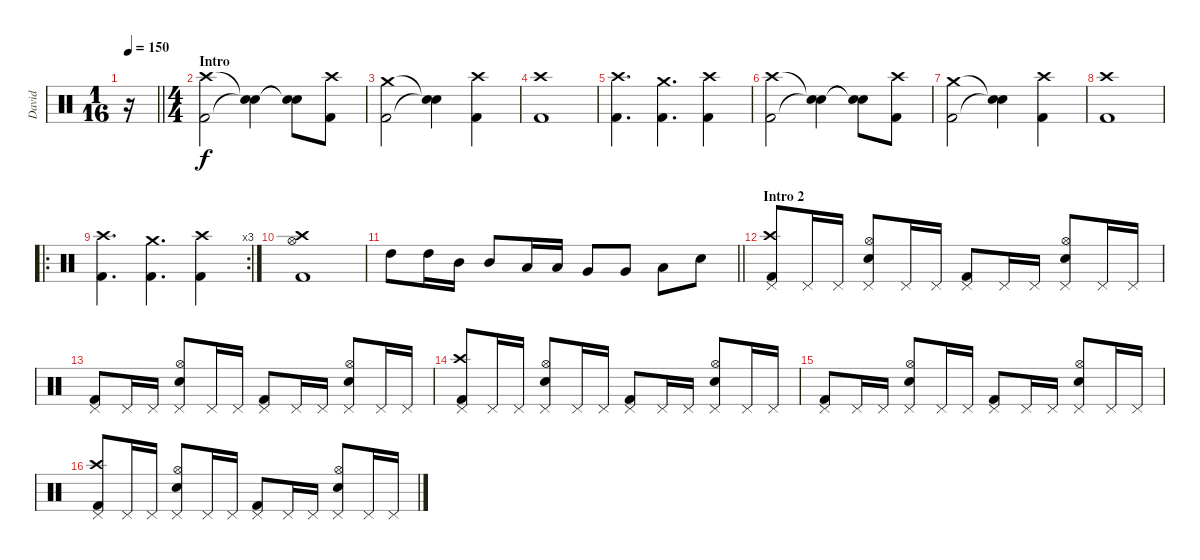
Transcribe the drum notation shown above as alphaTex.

\track ("David" "David") {instrument percussion}
\staff {score}
\articulation defaults
\ts (1 16)
\tempo 150
\clef neutral
\barLineRight lightlight
\ks c
r.16{dy f} |
\ts (4 4)
\section ("" "Intro")
("Kick (hit) 2" "Crash high (hit)").2 ("Snare (hit)"{t} "Snare (hit)"{t}).4 ("Snare (hit)"{t} "Snare (hit)"{t}).8 ("Kick (hit) 2" "Crash high (hit)").8 |
("Kick (hit) 2" "Crash medium (hit)").2 ("Snare (hit)"{t} "Snare (hit)"{t}).4 ("Kick (hit) 2" "Crash high (hit)").4 |
("Kick (hit) 2" "Crash high (hit)").1 |
("Kick (hit) 2" "Crash high (hit)").4{d} ("Kick (hit) 2" "Crash medium (hit)").4{d} ("Kick (hit) 2" "Crash high (hit)").4 |
("Kick (hit) 2" "Crash high (hit)").2 ("Snare (hit)"{t} "Snare (hit)"{t}).4 ("Snare (hit)"{t} "Snare (hit)"{t}).8 ("Kick (hit) 2" "Crash high (hit)").8 |
("Kick (hit) 2" "Crash medium (hit)").2 ("Snare (hit)"{t} "Snare (hit)"{t}).4 ("Kick (hit) 2" "Crash high (hit)").4 |
("Kick (hit) 2" "Crash high (hit)").1 |
\ro
\rc 3
("Kick (hit) 2" "Crash high (hit)").4{d} ("Kick (hit) 2" "Crash medium (hit)").4{d} ("Kick (hit) 2" "Crash high (hit)").4 |
("Kick (hit) 2" "Hi-Hat (open)" "Crash high (hit)").1 |
\barLineRight lightlight "High Tom (hit)".8 "High Tom (hit)".16 "Mid Tom (hit)".16 "Mid Tom (hit)".8 "Low Tom (hit)".16 "Low Tom (hit)".16 "Very Low Tom (hit)".8 "Very Low Tom (hit)".8 "Low Floor Tom (hit)".8 "Snare (hit) 2".8
|
\section ("" "Intro 2")
("Kick (hit) 2" "Pedal Hi-Hat (hit)" "Crash high (hit)").8 "Pedal Hi-Hat (hit)".16 "Pedal Hi-Hat (hit)".16 ("Snare (hit) 2" "Pedal Hi-Hat (hit)" "Hi-Hat (open)").8 "Pedal Hi-Hat (hit)".16 "Pedal Hi-Hat (hit)".16 ("Kick (hit) 2" "Pedal Hi-Hat (hit)").8 "Pedal Hi-Hat (hit)".16 "Pedal Hi-Hat (hit)".16 ("Snare (hit) 2" "Pedal Hi-Hat (hit)" "Hi-Hat (open)").8 "Pedal Hi-Hat (hit)".16 "Pedal Hi-Hat (hit)".16 |
("Kick (hit) 2" "Pedal Hi-Hat (hit)").8 "Pedal Hi-Hat (hit)".16 "Pedal Hi-Hat (hit)".16 ("Snare (hit) 2" "Pedal Hi-Hat (hit)" "Hi-Hat (open)").8 "Pedal Hi-Hat (hit)".16 "Pedal Hi-Hat (hit)".16 ("Kick (hit) 2" "Pedal Hi-Hat (hit)").8 "Pedal Hi-Hat (hit)".16 "Pedal Hi-Hat (hit)".16 ("Snare (hit) 2" "Pedal Hi-Hat (hit)" "Hi-Hat (open)").8 "Pedal Hi-Hat (hit)".16 "Pedal Hi-Hat (hit)".16 |
("Kick (hit) 2" "Pedal Hi-Hat (hit)" "Crash high (hit)").8 "Pedal Hi-Hat (hit)".16 "Pedal Hi-Hat (hit)".16 ("Snare (hit) 2" "Pedal Hi-Hat (hit)" "Hi-Hat (open)").8 "Pedal Hi-Hat (hit)".16 "Pedal Hi-Hat (hit)".16 ("Kick (hit) 2" "Pedal Hi-Hat (hit)").8 "Pedal Hi-Hat (hit)".16 "Pedal Hi-Hat (hit)".16 ("Snare (hit) 2" "Pedal Hi-Hat (hit)" "Hi-Hat (open)").8 "Pedal Hi-Hat (hit)".16 "Pedal Hi-Hat (hit)".16 |
("Kick (hit) 2" "Pedal Hi-Hat (hit)").8 "Pedal Hi-Hat (hit)".16 "Pedal Hi-Hat (hit)".16 ("Snare (hit) 2" "Pedal Hi-Hat (hit)" "Hi-Hat (open)").8 "Pedal Hi-Hat (hit)".16 "Pedal Hi-Hat (hit)".16 ("Kick (hit) 2" "Pedal Hi-Hat (hit)").8 "Pedal Hi-Hat (hit)".16 "Pedal Hi-Hat (hit)".16 ("Snare (hit) 2" "Pedal Hi-Hat (hit)" "Hi-Hat (open)").8 "Pedal Hi-Hat (hit)".16 "Pedal Hi-Hat (hit)".16 |
("Kick (hit) 2" "Pedal Hi-Hat (hit)" "Crash high (hit)").8 "Pedal Hi-Hat (hit)".16 "Pedal Hi-Hat (hit)".16 ("Snare (hit) 2" "Pedal Hi-Hat (hit)" "Hi-Hat (open)").8 "Pedal Hi-Hat (hit)".16 "Pedal Hi-Hat (hit)".16 ("Kick (hit) 2" "Pedal Hi-Hat (hit)").8 "Pedal Hi-Hat (hit)".16 "Pedal Hi-Hat (hit)".16 ("Snare (hit) 2" "Pedal Hi-Hat (hit)" "Hi-Hat (open)").8 "Pedal Hi-Hat (hit)".16 "Pedal Hi-Hat (hit)".16
